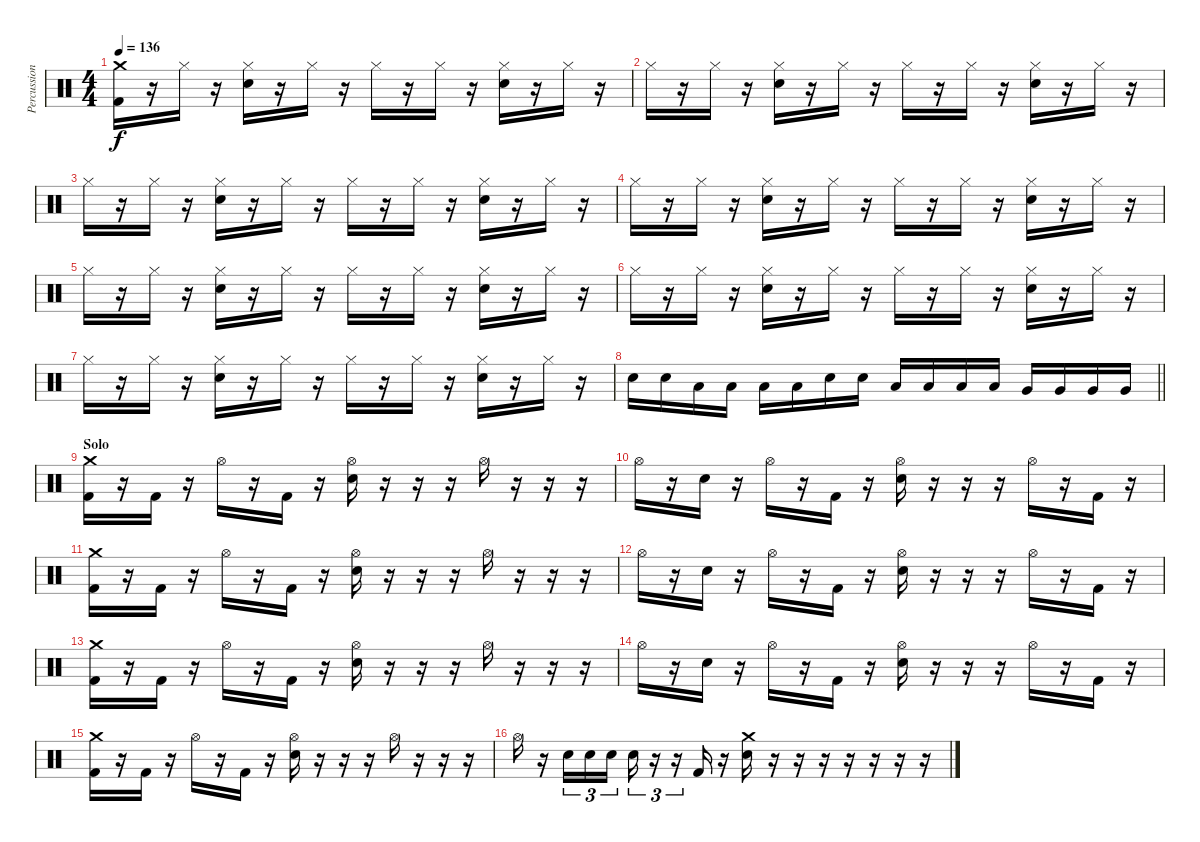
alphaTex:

\track ("Percussion" "Percussion") {instrument percussion}
\staff {score}
\articulation defaults
\ts (4 4)
\tempo 136
\clef neutral
\ks c
("Crash medium (hit)" "Kick (hit) 2").16{dy f} r.16 "Hi-Hat (closed)".16 r.16 ("Hi-Hat (closed)" "Electric Snare (hit)").16 r.16 "Hi-Hat (closed)".16 r.16 "Hi-Hat (closed)".16 r.16 "Hi-Hat (closed)".16 r.16 ("Hi-Hat (closed)" "Electric Snare (hit)").16 r.16 "Hi-Hat (closed)".16 r.16 |
"Hi-Hat (closed)".16 r.16 "Hi-Hat (closed)".16 r.16 ("Hi-Hat (closed)" "Electric Snare (hit)").16 r.16 "Hi-Hat (closed)".16 r.16 "Hi-Hat (closed)".16 r.16 "Hi-Hat (closed)".16 r.16 ("Hi-Hat (closed)" "Electric Snare (hit)").16 r.16 "Hi-Hat (closed)".16 r.16 |
"Hi-Hat (closed)".16 r.16 "Hi-Hat (closed)".16 r.16 ("Hi-Hat (closed)" "Electric Snare (hit)").16 r.16 "Hi-Hat (closed)".16 r.16 "Hi-Hat (closed)".16 r.16 "Hi-Hat (closed)".16 r.16 ("Hi-Hat (closed)" "Electric Snare (hit)").16 r.16 "Hi-Hat (closed)".16 r.16 |
"Hi-Hat (closed)".16 r.16 "Hi-Hat (closed)".16 r.16 ("Hi-Hat (closed)" "Electric Snare (hit)").16 r.16 "Hi-Hat (closed)".16 r.16 "Hi-Hat (closed)".16 r.16 "Hi-Hat (closed)".16 r.16 ("Hi-Hat (closed)" "Electric Snare (hit)").16 r.16 "Hi-Hat (closed)".16 r.16 |
"Hi-Hat (closed)".16 r.16 "Hi-Hat (closed)".16 r.16 ("Hi-Hat (closed)" "Electric Snare (hit)").16 r.16 "Hi-Hat (closed)".16 r.16 "Hi-Hat (closed)".16 r.16 "Hi-Hat (closed)".16 r.16 ("Hi-Hat (closed)" "Electric Snare (hit)").16 r.16 "Hi-Hat (closed)".16 r.16 |
"Hi-Hat (closed)".16 r.16 "Hi-Hat (closed)".16 r.16 ("Hi-Hat (closed)" "Electric Snare (hit)").16 r.16 "Hi-Hat (closed)".16 r.16 "Hi-Hat (closed)".16 r.16 "Hi-Hat (closed)".16 r.16 ("Hi-Hat (closed)" "Electric Snare (hit)").16 r.16 "Hi-Hat (closed)".16 r.16 |
"Hi-Hat (closed)".16 r.16 "Hi-Hat (closed)".16 r.16 ("Hi-Hat (closed)" "Electric Snare (hit)").16 r.16 "Hi-Hat (closed)".16 r.16 "Hi-Hat (closed)".16 r.16 "Hi-Hat (closed)".16 r.16 ("Hi-Hat (closed)" "Electric Snare (hit)").16 r.16 "Hi-Hat (closed)".16 r.16 |
\barLineRight lightlight "Electric Snare (hit)".16 "Electric Snare (hit)".16 "Low Tom (hit)".16 "Low Tom (hit)".16 "Low Tom (hit)".16 "Low Tom (hit)".16 "Electric Snare (hit)".16 "Electric Snare (hit)".16 "Low Tom (hit)".16 "Low Tom (hit)".16 "Low Tom (hit)".16 "Low Tom (hit)".16 "Very Low Tom (hit)".16 "Very Low Tom (hit)".16 "Very Low Tom (hit)".16 "Very Low Tom (hit)".16
|
\section ("" "Solo")
("Crash medium (hit)" "Kick (hit) 2").16 r.16 "Kick (hit) 2".16 r.16 "Hi-Hat (open)".16 r.16 "Kick (hit) 2".16 r.16 ("Hi-Hat (open)" "Electric Snare (hit)").16 r.16 r.16 r.16 "Hi-Hat (open)".16 r.16 r.16 r.16 |
"Hi-Hat (open)".16 r.16 "Electric Snare (hit)".16 r.16 "Hi-Hat (open)".16 r.16 "Kick (hit) 2".16 r.16 ("Hi-Hat (open)" "Electric Snare (hit)").16 r.16 r.16 r.16 "Hi-Hat (open)".16 r.16 "Kick (hit) 2".16 r.16 |
("Crash medium (hit)" "Kick (hit) 2").16 r.16 "Kick (hit) 2".16 r.16 "Hi-Hat (open)".16 r.16 "Kick (hit) 2".16 r.16 ("Hi-Hat (open)" "Electric Snare (hit)").16 r.16 r.16 r.16 "Hi-Hat (open)".16 r.16 r.16 r.16 |
"Hi-Hat (open)".16 r.16 "Electric Snare (hit)".16 r.16 "Hi-Hat (open)".16 r.16 "Kick (hit) 2".16 r.16 ("Hi-Hat (open)" "Electric Snare (hit)").16 r.16 r.16 r.16 "Hi-Hat (open)".16 r.16 "Kick (hit) 2".16 r.16 |
("Crash medium (hit)" "Kick (hit) 2").16 r.16 "Kick (hit) 2".16 r.16 "Hi-Hat (open)".16 r.16 "Kick (hit) 2".16 r.16 ("Hi-Hat (open)" "Electric Snare (hit)").16 r.16 r.16 r.16 "Hi-Hat (open)".16 r.16 r.16 r.16 |
"Hi-Hat (open)".16 r.16 "Electric Snare (hit)".16 r.16 "Hi-Hat (open)".16 r.16 "Kick (hit) 2".16 r.16 ("Hi-Hat (open)" "Electric Snare (hit)").16 r.16 r.16 r.16 "Hi-Hat (open)".16 r.16 "Kick (hit) 2".16 r.16 |
("Crash medium (hit)" "Kick (hit) 2").16 r.16 "Kick (hit) 2".16 r.16 "Hi-Hat (open)".16 r.16 "Kick (hit) 2".16 r.16 ("Hi-Hat (open)" "Electric Snare (hit)").16 r.16 r.16 r.16 "Hi-Hat (open)".16 r.16 r.16 r.16 |
"Hi-Hat (open)".16 r.16 "Electric Snare (hit)".16{tu (3 2)} "Electric Snare (hit)".16{tu (3 2)} "Electric Snare (hit)".16{tu (3 2)} "Electric Snare (hit)".16{tu (3 2)} r.16{tu (3 2)} r.16{tu (3 2)} "Kick (hit) 2".16 r.16 ("Crash medium (hit)" "Electric Snare (hit)").16 r.16 r.16 r.16 r.16 r.16 r.16 r.16
